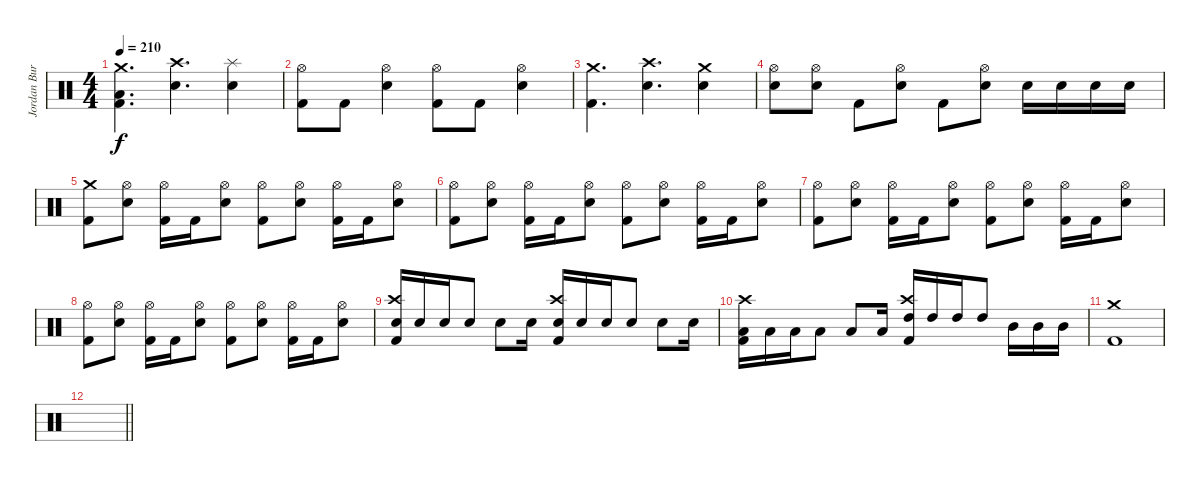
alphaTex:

\track ("Jordan Burns" "Jordan Bur") {instrument percussion}
\staff {score}
\articulation defaults
\ts (4 4)
\tempo 210
\clef neutral
\ks c
("Crash medium (hit)" "Low Tom (hit)" "Kick (hit) 2").4{d dy f} ("Crash high (hit)" "Electric Snare (hit)").4{d} ("Splash (hit)" "Electric Snare (hit)").4 |
("Hi-Hat (open)" "Kick (hit) 2").8 "Kick (hit) 2".8 ("Hi-Hat (open)" "Electric Snare (hit)").4 ("Hi-Hat (open)" "Kick (hit) 2").8 "Kick (hit) 2".8 ("Hi-Hat (open)" "Electric Snare (hit)").4 |
("Crash medium (hit)" "Kick (hit) 2").4{d} ("Crash high (hit)" "Electric Snare (hit)").4{d} ("Crash medium (hit)" "Electric Snare (hit)").4 |
("Hi-Hat (open)" "Electric Snare (hit)").8 ("Hi-Hat (open)" "Electric Snare (hit)").8 "Kick (hit) 2".8 ("Hi-Hat (open)" "Electric Snare (hit)").8 "Kick (hit) 2".8 ("Hi-Hat (open)" "Electric Snare (hit)").8 "Electric Snare (hit)".16 "Electric Snare (hit)".16 "Electric Snare (hit)".16 "Electric Snare (hit)".16 |
("Crash medium (hit)" "Kick (hit) 2").8 ("Hi-Hat (open)" "Electric Snare (hit)").8 ("Hi-Hat (open)" "Kick (hit) 2").16 "Kick (hit) 2".16 ("Hi-Hat (open)" "Electric Snare (hit)").8 ("Hi-Hat (open)" "Kick (hit) 2").8 ("Hi-Hat (open)" "Electric Snare (hit)").8 ("Hi-Hat (open)" "Kick (hit) 2").16 "Kick (hit) 2".16 ("Hi-Hat (open)" "Electric Snare (hit)").8 |
("Hi-Hat (open)" "Kick (hit) 2").8 ("Hi-Hat (open)" "Electric Snare (hit)").8 ("Hi-Hat (open)" "Kick (hit) 2").16 "Kick (hit) 2".16 ("Hi-Hat (open)" "Electric Snare (hit)").8 ("Hi-Hat (open)" "Kick (hit) 2").8 ("Hi-Hat (open)" "Electric Snare (hit)").8 ("Hi-Hat (open)" "Kick (hit) 2").16 "Kick (hit) 2".16 ("Hi-Hat (open)" "Electric Snare (hit)").8 |
("Hi-Hat (open)" "Kick (hit) 2").8 ("Hi-Hat (open)" "Electric Snare (hit)").8 ("Hi-Hat (open)" "Kick (hit) 2").16 "Kick (hit) 2".16 ("Hi-Hat (open)" "Electric Snare (hit)").8 ("Hi-Hat (open)" "Kick (hit) 2").8 ("Hi-Hat (open)" "Electric Snare (hit)").8 ("Hi-Hat (open)" "Kick (hit) 2").16 "Kick (hit) 2".16 ("Hi-Hat (open)" "Electric Snare (hit)").8 |
("Hi-Hat (open)" "Kick (hit) 2").8 ("Hi-Hat (open)" "Electric Snare (hit)").8 ("Hi-Hat (open)" "Kick (hit) 2").16 "Kick (hit) 2".16 ("Hi-Hat (open)" "Electric Snare (hit)").8 ("Hi-Hat (open)" "Kick (hit) 2").8 ("Hi-Hat (open)" "Electric Snare (hit)").8 ("Hi-Hat (open)" "Kick (hit) 2").16 "Kick (hit) 2".16 ("Hi-Hat (open)" "Electric Snare (hit)").8 |
("Crash high (hit)" "Electric Snare (hit)" "Kick (hit) 2").16 "Electric Snare (hit)".16 "Electric Snare (hit)".16 "Electric Snare (hit)".8 "Electric Snare (hit)".8 "Electric Snare (hit)".16 ("Crash high (hit)" "Electric Snare (hit)" "Kick (hit) 2").16 "Electric Snare (hit)".16 "Electric Snare (hit)".16 "Electric Snare (hit)".8 "Electric Snare (hit)".8 "Electric Snare (hit)".16 |
("Crash high (hit)" "Low Tom (hit)" "Kick (hit) 2").16 "Low Tom (hit)".16 "Low Tom (hit)".16 "Low Tom (hit)".8 "Low Tom (hit)".8 "Low Tom (hit)".16 ("Crash high (hit)" "High Tom (hit)" "Kick (hit) 2").16 "High Tom (hit)".16 "High Tom (hit)".16 "High Tom (hit)".8 "Mid Tom (hit)".16 "Mid Tom (hit)".16 "Mid Tom (hit)".16 |
("Crash medium (hit)" "Kick (hit) 2").1 |
\barLineRight lightlight
